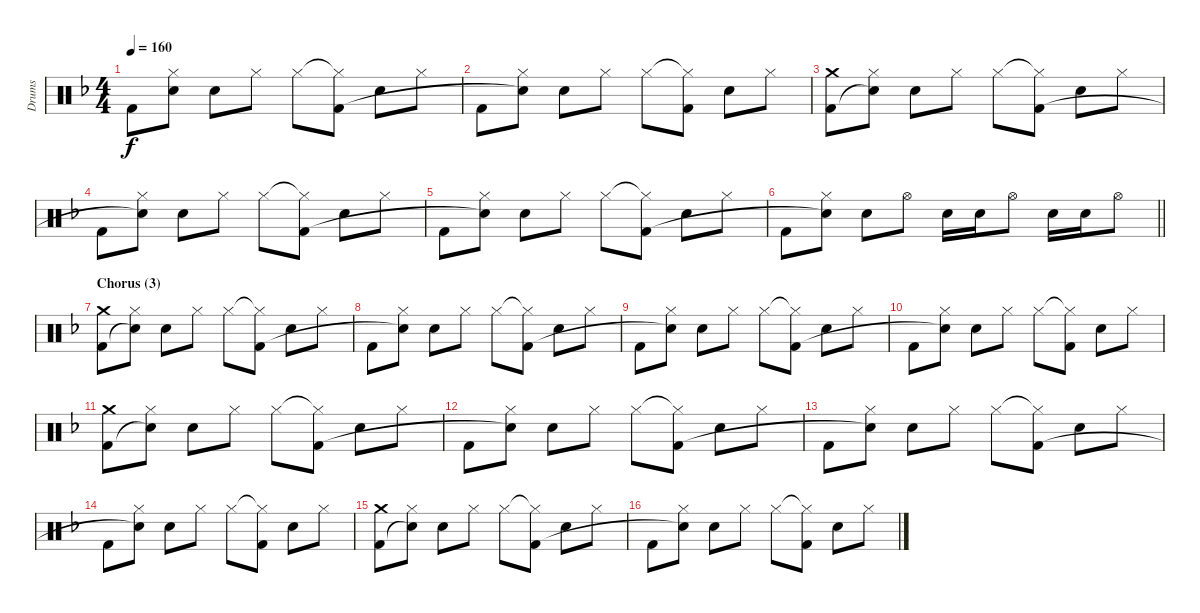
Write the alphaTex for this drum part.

\track ("Drums" "Drums") {instrument percussion}
\staff {score}
\articulation defaults
\ts (4 4)
\tempo 160
\clef neutral
\ks f "Kick (hit) 2".8{dy f}
("Hi-Hat (closed)" "Snare (hit)"{t}).8 "Electric Snare (hit)".8 "Hi-Hat (closed)".8 "Hi-Hat (closed)".8 ("Hi-Hat (closed)"{t} "Kick (hit) 2").8 "Electric Snare (hit)".8 "Hi-Hat (closed)".8 |
"Kick (hit) 2".8 ("Hi-Hat (closed)" "Snare (hit)"{t}).8 "Electric Snare (hit)".8 "Hi-Hat (closed)".8 "Hi-Hat (closed)".8 ("Hi-Hat (closed)"{t} "Kick (hit) 2").8 "Electric Snare (hit)".8 "Hi-Hat (closed)".8 |
("Crash medium (hit)" "Kick (hit) 2").8 ("Hi-Hat (closed)" "Snare (hit)"{t}).8 "Electric Snare (hit)".8 "Hi-Hat (closed)".8 "Hi-Hat (closed)".8 ("Hi-Hat (closed)"{t} "Kick (hit) 2").8 "Electric Snare (hit)".8 "Hi-Hat (closed)".8 |
"Kick (hit) 2".8 ("Hi-Hat (closed)" "Snare (hit)"{t}).8 "Electric Snare (hit)".8 "Hi-Hat (closed)".8 "Hi-Hat (closed)".8 ("Hi-Hat (closed)"{t} "Kick (hit) 2").8 "Electric Snare (hit)".8 "Hi-Hat (closed)".8 |
"Kick (hit) 2".8 ("Hi-Hat (closed)" "Snare (hit)"{t}).8 "Electric Snare (hit)".8 "Hi-Hat (closed)".8 "Hi-Hat (closed)".8 ("Hi-Hat (closed)"{t} "Kick (hit) 2").8 "Electric Snare (hit)".8 "Hi-Hat (closed)".8 |
\barLineRight lightlight "Kick (hit) 2".8
("Hi-Hat (closed)" "Snare (hit)"{t}).8 "Electric Snare (hit)".8 "Hi-Hat (open)".8 "Electric Snare (hit)".16 "Electric Snare (hit)".16 "Hi-Hat (open)".8 "Electric Snare (hit)".16 "Electric Snare (hit)".16 "Hi-Hat (open)".8 |
\section ("" "Chorus (3)")
("Crash medium (hit)" "Kick (hit) 2").8 ("Hi-Hat (closed)" "Snare (hit)"{t}).8 "Electric Snare (hit)".8 "Hi-Hat (closed)".8 "Hi-Hat (closed)".8 ("Hi-Hat (closed)"{t} "Kick (hit) 2").8 "Electric Snare (hit)".8 "Hi-Hat (closed)".8 |
"Kick (hit) 2".8 ("Hi-Hat (closed)" "Snare (hit)"{t}).8 "Electric Snare (hit)".8 "Hi-Hat (closed)".8 "Hi-Hat (closed)".8 ("Hi-Hat (closed)"{t} "Kick (hit) 2").8 "Electric Snare (hit)".8 "Hi-Hat (closed)".8 |
"Kick (hit) 2".8 ("Hi-Hat (closed)" "Snare (hit)"{t}).8 "Electric Snare (hit)".8 "Hi-Hat (closed)".8 "Hi-Hat (closed)".8 ("Hi-Hat (closed)"{t} "Kick (hit) 2").8 "Electric Snare (hit)".8 "Hi-Hat (closed)".8 |
"Kick (hit) 2".8 ("Hi-Hat (closed)" "Snare (hit)"{t}).8 "Electric Snare (hit)".8 "Hi-Hat (closed)".8 "Hi-Hat (closed)".8 ("Hi-Hat (closed)"{t} "Kick (hit) 2").8 "Electric Snare (hit)".8 "Hi-Hat (closed)".8 |
("Crash medium (hit)" "Kick (hit) 2").8 ("Hi-Hat (closed)" "Snare (hit)"{t}).8 "Electric Snare (hit)".8 "Hi-Hat (closed)".8 "Hi-Hat (closed)".8 ("Hi-Hat (closed)"{t} "Kick (hit) 2").8 "Electric Snare (hit)".8 "Hi-Hat (closed)".8 |
"Kick (hit) 2".8 ("Hi-Hat (closed)" "Snare (hit)"{t}).8 "Electric Snare (hit)".8 "Hi-Hat (closed)".8 "Hi-Hat (closed)".8 ("Hi-Hat (closed)"{t} "Kick (hit) 2").8 "Electric Snare (hit)".8 "Hi-Hat (closed)".8 |
"Kick (hit) 2".8 ("Hi-Hat (closed)" "Snare (hit)"{t}).8 "Electric Snare (hit)".8 "Hi-Hat (closed)".8 "Hi-Hat (closed)".8 ("Hi-Hat (closed)"{t} "Kick (hit) 2").8 "Electric Snare (hit)".8 "Hi-Hat (closed)".8 |
"Kick (hit) 2".8 ("Hi-Hat (closed)" "Snare (hit)"{t}).8 "Electric Snare (hit)".8 "Hi-Hat (closed)".8 "Hi-Hat (closed)".8 ("Hi-Hat (closed)"{t} "Kick (hit) 2").8 "Electric Snare (hit)".8 "Hi-Hat (closed)".8 |
("Crash medium (hit)" "Kick (hit) 2").8 ("Hi-Hat (closed)" "Snare (hit)"{t}).8 "Electric Snare (hit)".8 "Hi-Hat (closed)".8 "Hi-Hat (closed)".8 ("Hi-Hat (closed)"{t} "Kick (hit) 2").8 "Electric Snare (hit)".8 "Hi-Hat (closed)".8 |
"Kick (hit) 2".8 ("Hi-Hat (closed)" "Snare (hit)"{t}).8 "Electric Snare (hit)".8 "Hi-Hat (closed)".8 "Hi-Hat (closed)".8 ("Hi-Hat (closed)"{t} "Kick (hit) 2").8 "Electric Snare (hit)".8 "Hi-Hat (closed)".8
